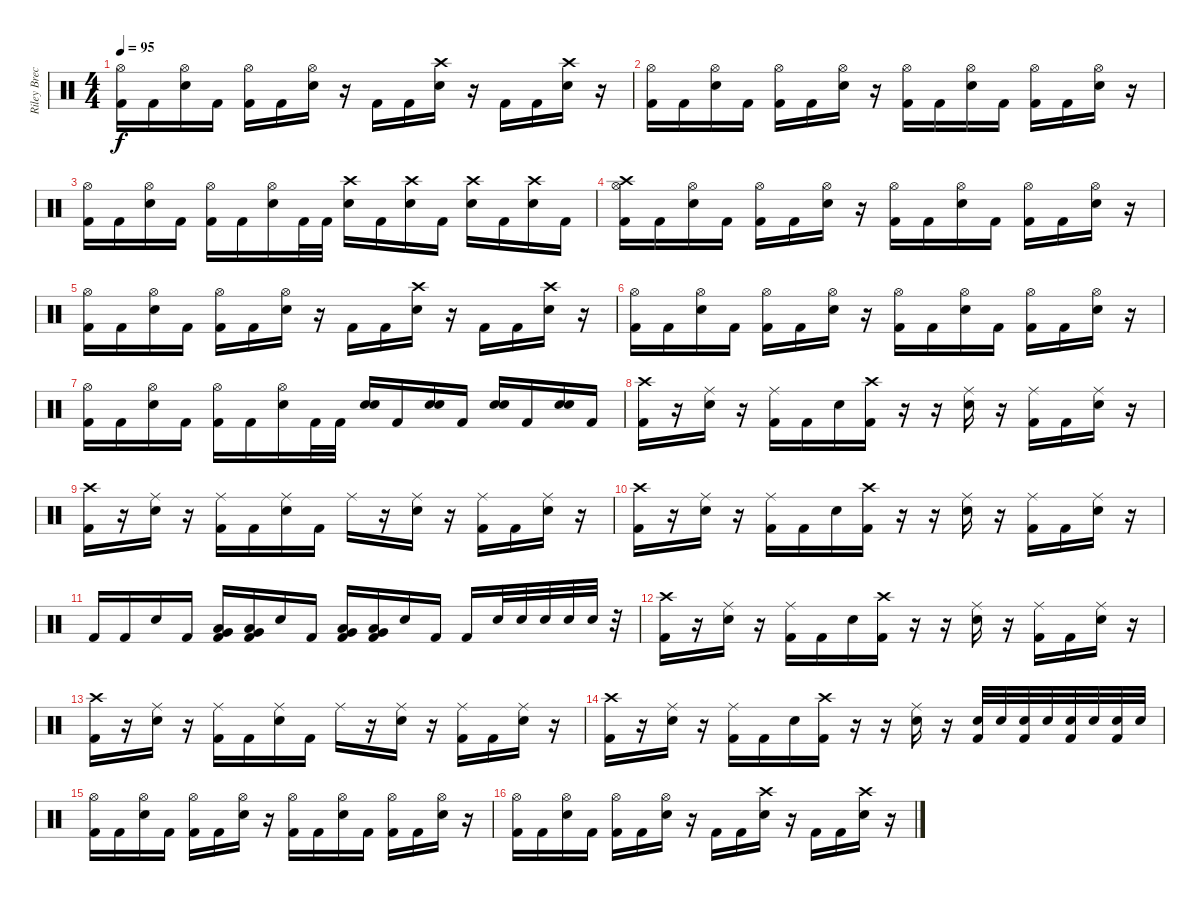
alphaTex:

\track ("Riley Breckenridge" "Riley Brec") {instrument percussion}
\staff {score}
\articulation defaults
\ts (4 4)
\tempo 95
\clef neutral
\ks c
("Kick (hit) 2" "Hi-Hat (open)").16{dy f} "Kick (hit) 2".16 ("Electric Snare (hit)" "Hi-Hat (open)").16 "Kick (hit) 2".16 ("Kick (hit) 2" "Hi-Hat (open)").16 "Kick (hit) 2".16 ("Electric Snare (hit)" "Hi-Hat (open)").16 r.16 "Kick (hit) 2".16 "Kick (hit) 2".16 ("Electric Snare (hit)" "Crash high (hit)").16 r.16 "Kick (hit) 2".16 "Kick (hit) 2".16 ("Electric Snare (hit)" "Crash high (hit)").16 r.16 |
("Kick (hit) 2" "Hi-Hat (open)").16 "Kick (hit) 2".16 ("Electric Snare (hit)" "Hi-Hat (open)").16 "Kick (hit) 2".16 ("Kick (hit) 2" "Hi-Hat (open)").16 "Kick (hit) 2".16 ("Electric Snare (hit)" "Hi-Hat (open)").16 r.16 ("Kick (hit) 2" "Hi-Hat (open)").16 "Kick (hit) 2".16 ("Electric Snare (hit)" "Hi-Hat (open)").16 "Kick (hit) 2".16 ("Kick (hit) 2" "Hi-Hat (open)").16 "Kick (hit) 2".16 ("Electric Snare (hit)" "Hi-Hat (open)").16 r.16 |
("Kick (hit) 2" "Hi-Hat (open)").16 "Kick (hit) 2".16 ("Electric Snare (hit)" "Hi-Hat (open)").16 "Kick (hit) 2".16 ("Kick (hit) 2" "Hi-Hat (open)").16 "Kick (hit) 2".16 ("Electric Snare (hit)" "Hi-Hat (open)").16 "Kick (hit) 2".32 "Kick (hit) 2".32 ("Electric Snare (hit)" "Crash high (hit)").16 "Kick (hit) 2".16 ("Electric Snare (hit)" "Crash high (hit)").16 "Kick (hit) 2".16 ("Electric Snare (hit)" "Crash high (hit)").16 "Kick (hit) 2".16 ("Electric Snare (hit)" "Crash high (hit)").16 "Kick (hit) 2".16 |
("Kick (hit) 2" "Crash high (hit)" "Hi-Hat (open)").16 "Kick (hit) 2".16 ("Electric Snare (hit)" "Hi-Hat (open)").16 "Kick (hit) 2".16 ("Kick (hit) 2" "Hi-Hat (open)").16 "Kick (hit) 2".16 ("Electric Snare (hit)" "Hi-Hat (open)").16 r.16 ("Kick (hit) 2" "Hi-Hat (open)").16 "Kick (hit) 2".16 ("Electric Snare (hit)" "Hi-Hat (open)").16 "Kick (hit) 2".16 ("Kick (hit) 2" "Hi-Hat (open)").16 "Kick (hit) 2".16 ("Electric Snare (hit)" "Hi-Hat (open)").16 r.16 |
("Kick (hit) 2" "Hi-Hat (open)").16 "Kick (hit) 2".16 ("Electric Snare (hit)" "Hi-Hat (open)").16 "Kick (hit) 2".16 ("Kick (hit) 2" "Hi-Hat (open)").16 "Kick (hit) 2".16 ("Electric Snare (hit)" "Hi-Hat (open)").16 r.16 "Kick (hit) 2".16 "Kick (hit) 2".16 ("Electric Snare (hit)" "Crash high (hit)").16 r.16 "Kick (hit) 2".16 "Kick (hit) 2".16 ("Electric Snare (hit)" "Crash high (hit)").16 r.16 |
("Kick (hit) 2" "Hi-Hat (open)").16 "Kick (hit) 2".16 ("Electric Snare (hit)" "Hi-Hat (open)").16 "Kick (hit) 2".16 ("Kick (hit) 2" "Hi-Hat (open)").16 "Kick (hit) 2".16 ("Electric Snare (hit)" "Hi-Hat (open)").16 r.16 ("Kick (hit) 2" "Hi-Hat (open)").16 "Kick (hit) 2".16 ("Electric Snare (hit)" "Hi-Hat (open)").16 "Kick (hit) 2".16 ("Kick (hit) 2" "Hi-Hat (open)").16 "Kick (hit) 2".16 ("Electric Snare (hit)" "Hi-Hat (open)").16 r.16 |
("Kick (hit) 2" "Hi-Hat (open)").16 "Kick (hit) 2".16 ("Electric Snare (hit)" "Hi-Hat (open)").16 "Kick (hit) 2".16 ("Kick (hit) 2" "Hi-Hat (open)").16 "Kick (hit) 2".16 ("Electric Snare (hit)" "Hi-Hat (open)").16 "Kick (hit) 2".32 "Kick (hit) 2".32 ("Electric Snare (hit)" "Electric Snare (hit)").16 "Kick (hit) 2".16 ("Electric Snare (hit)" "Electric Snare (hit)").16 "Kick (hit) 2".16 ("Electric Snare (hit)" "Electric Snare (hit)").16 "Kick (hit) 2".16 ("Electric Snare (hit)" "Electric Snare (hit)").16 "Kick (hit) 2".16 |
("Kick (hit) 2" "Crash high (hit)").16 r.16 ("Electric Snare (hit)" "Ride (middle)").16 r.16 ("Kick (hit) 2" "Ride (middle)").16 "Kick (hit) 2".16 "Electric Snare (hit)".16 ("Kick (hit) 2" "Crash high (hit)").16 r.16 r.16 ("Electric Snare (hit)" "Ride (middle)").16 r.16 ("Kick (hit) 2" "Ride (middle)").16 "Kick (hit) 2".16 ("Electric Snare (hit)" "Ride (middle)").16 r.16 |
("Kick (hit) 2" "Crash high (hit)").16 r.16 ("Electric Snare (hit)" "Ride (middle)").16 r.16 ("Kick (hit) 2" "Ride (middle)").16 "Kick (hit) 2".16 ("Electric Snare (hit)" "Ride (middle)").16 "Kick (hit) 2".16 "Ride (middle)".16 r.16 ("Electric Snare (hit)" "Ride (middle)").16 r.16 ("Kick (hit) 2" "Ride (middle)").16 "Kick (hit) 2".16 ("Electric Snare (hit)" "Ride (middle)").16 r.16 |
("Kick (hit) 2" "Crash high (hit)").16 r.16 ("Electric Snare (hit)" "Ride (middle)").16 r.16 ("Kick (hit) 2" "Ride (middle)").16 "Kick (hit) 2".16 "Electric Snare (hit)".16 ("Kick (hit) 2" "Crash high (hit)").16 r.16 r.16 ("Electric Snare (hit)" "Ride (middle)").16 r.16 ("Kick (hit) 2" "Ride (middle)").16 "Kick (hit) 2".16 ("Electric Snare (hit)" "Ride (middle)").16 r.16 |
"Kick (hit) 2".16 "Kick (hit) 2".16 "Electric Snare (hit)".16 "Kick (hit) 2".16 ("Kick (hit) 2" "Very Low Tom (hit)" "Low Floor Tom (hit)").16 ("Kick (hit) 2" "Very Low Tom (hit)" "Low Floor Tom (hit)").16 "Electric Snare (hit)".16 "Kick (hit) 2".16 ("Kick (hit) 2" "Very Low Tom (hit)" "Low Floor Tom (hit)").16 ("Kick (hit) 2" "Very Low Tom (hit)" "Low Floor Tom (hit)").16 "Electric Snare (hit)".16 "Kick (hit) 2".16 "Kick (hit) 2".16 "Electric Snare (hit)".32 "Electric Snare (hit)".32 "Electric Snare (hit)".32 "Electric Snare (hit)".32 "Electric Snare (hit)".32 r.32 |
("Kick (hit) 2" "Crash high (hit)").16 r.16 ("Electric Snare (hit)" "Ride (middle)").16 r.16 ("Kick (hit) 2" "Ride (middle)").16 "Kick (hit) 2".16 "Electric Snare (hit)".16 ("Kick (hit) 2" "Crash high (hit)").16 r.16 r.16 ("Electric Snare (hit)" "Ride (middle)").16 r.16 ("Kick (hit) 2" "Ride (middle)").16 "Kick (hit) 2".16 ("Electric Snare (hit)" "Ride (middle)").16 r.16 |
("Kick (hit) 2" "Crash high (hit)").16 r.16 ("Electric Snare (hit)" "Ride (middle)").16 r.16 ("Kick (hit) 2" "Ride (middle)").16 "Kick (hit) 2".16 ("Electric Snare (hit)" "Ride (middle)").16 "Kick (hit) 2".16 "Ride (middle)".16 r.16 ("Electric Snare (hit)" "Ride (middle)").16 r.16 ("Kick (hit) 2" "Ride (middle)").16 "Kick (hit) 2".16 ("Electric Snare (hit)" "Ride (middle)").16 r.16 |
("Kick (hit) 2" "Crash high (hit)").16 r.16 ("Electric Snare (hit)" "Ride (middle)").16 r.16 ("Kick (hit) 2" "Ride (middle)").16 "Kick (hit) 2".16 "Electric Snare (hit)".16 ("Kick (hit) 2" "Crash high (hit)").16 r.16 r.16 ("Electric Snare (hit)" "Ride (middle)").16 r.16 ("Kick (hit) 2" "Electric Snare (hit)").32 "Electric Snare (hit)".32 ("Kick (hit) 2" "Electric Snare (hit)").32 "Electric Snare (hit)".32 ("Kick (hit) 2" "Electric Snare (hit)").32 "Electric Snare (hit)".32 ("Kick (hit) 2" "Electric Snare (hit)").32 "Electric Snare (hit)".32 |
("Kick (hit) 2" "Hi-Hat (open)").16 "Kick (hit) 2".16 ("Electric Snare (hit)" "Hi-Hat (open)").16 "Kick (hit) 2".16 ("Kick (hit) 2" "Hi-Hat (open)").16 "Kick (hit) 2".16 ("Electric Snare (hit)" "Hi-Hat (open)").16 r.16 ("Kick (hit) 2" "Hi-Hat (open)").16 "Kick (hit) 2".16 ("Electric Snare (hit)" "Hi-Hat (open)").16 "Kick (hit) 2".16 ("Kick (hit) 2" "Hi-Hat (open)").16 "Kick (hit) 2".16 ("Electric Snare (hit)" "Hi-Hat (open)").16 r.16 |
("Kick (hit) 2" "Hi-Hat (open)").16 "Kick (hit) 2".16 ("Electric Snare (hit)" "Hi-Hat (open)").16 "Kick (hit) 2".16 ("Kick (hit) 2" "Hi-Hat (open)").16 "Kick (hit) 2".16 ("Electric Snare (hit)" "Hi-Hat (open)").16 r.16 "Kick (hit) 2".16 "Kick (hit) 2".16 ("Electric Snare (hit)" "Crash high (hit)").16 r.16 "Kick (hit) 2".16 "Kick (hit) 2".16 ("Electric Snare (hit)" "Crash high (hit)").16 r.16
